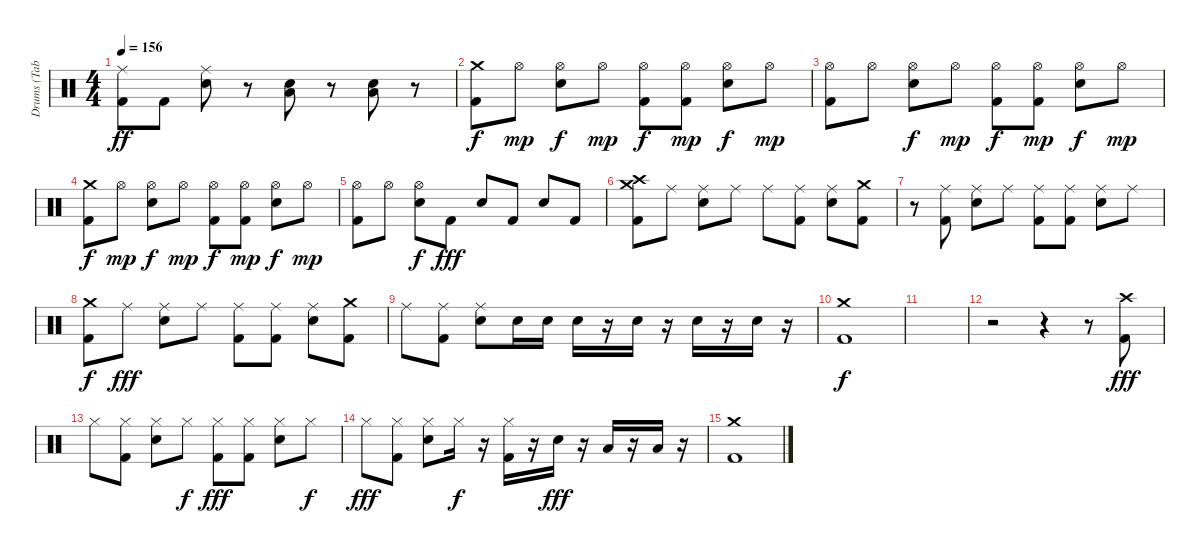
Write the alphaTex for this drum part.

\track ("Drums (Tab By Drumminger)" "Drums (Tab") {instrument percussion}
\staff {score}
\articulation defaults
\ts (4 4)
\tempo 156
\clef neutral
\ks c
("Ride (middle)" "Kick (hit) 2").8{dy ff} "Kick (hit) 2".8 ("Ride (middle)" "Snare (hit) 2").8 r.8 ("Low Floor Tom (hit)" "Snare (hit) 2").8 r.8 ("Low Floor Tom (hit)" "Snare (hit) 2").8 r.8 |
("Crash medium (hit)" "Kick (hit) 2").8{dy f} "Hi-Hat (open)".8{dy mp} ("Hi-Hat (open)" "Snare (hit) 2").8{dy f} "Hi-Hat (open)".8{dy mp} ("Hi-Hat (open)" "Kick (hit) 2").8{dy f} ("Hi-Hat (open)" "Kick (hit) 2").8{dy mp} ("Hi-Hat (open)" "Snare (hit) 2").8{dy f} "Hi-Hat (open)".8{dy mp} |
("Hi-Hat (open)" "Kick (hit) 2").8 "Hi-Hat (open)".8 ("Hi-Hat (open)" "Snare (hit) 2").8{dy f} "Hi-Hat (open)".8{dy mp} ("Hi-Hat (open)" "Kick (hit) 2").8{dy f} ("Hi-Hat (open)" "Kick (hit) 2").8{dy mp} ("Hi-Hat (open)" "Snare (hit) 2").8{dy f} "Hi-Hat (open)".8{dy mp} |
("Crash medium (hit)" "Kick (hit) 2").8{dy f} "Hi-Hat (open)".8{dy mp} ("Hi-Hat (open)" "Snare (hit) 2").8{dy f} "Hi-Hat (open)".8{dy mp} ("Hi-Hat (open)" "Kick (hit) 2").8{dy f} ("Hi-Hat (open)" "Kick (hit) 2").8{dy mp} ("Hi-Hat (open)" "Snare (hit) 2").8{dy f} "Hi-Hat (open)".8{dy mp} |
("Hi-Hat (open)" "Kick (hit) 2").8 "Hi-Hat (open)".8 ("Hi-Hat (open)" "Snare (hit) 2").8{dy f} "Kick (hit) 2".8{dy fff} "Snare (hit) 2".8 "Kick (hit) 2".8 "Snare (hit) 2".8 "Kick (hit) 2".8 |
("Crash medium (hit)" "Crash high (hit)" "Kick (hit) 2").8 "Ride (middle)".8 ("Ride (middle)" "Snare (hit) 2").8 "Ride (middle)".8 "Ride (middle)".8 ("Ride (middle)" "Kick (hit) 2").8 ("Ride (middle)" "Snare (hit) 2").8 ("Crash medium (hit)" "Kick (hit) 2").8 |
r.8 ("Ride (middle)" "Kick (hit) 2").8 ("Ride (middle)" "Snare (hit) 2").8 "Ride (middle)".8 ("Ride (middle)" "Kick (hit) 2").8 ("Ride (middle)" "Kick (hit) 2").8 ("Ride (middle)" "Snare (hit) 2").8 "Ride (middle)".8 |
("Crash medium (hit)" "Kick (hit) 2").8{dy f} "Ride (middle)".8{dy fff} ("Ride (middle)" "Snare (hit) 2").8 "Ride (middle)".8 ("Ride (middle)" "Kick (hit) 2").8 ("Ride (middle)" "Kick (hit) 2").8 ("Ride (middle)" "Snare (hit) 2").8 ("Crash medium (hit)" "Kick (hit) 2").8 |
"Ride (middle)".8 ("Ride (middle)" "Kick (hit) 2").8 ("Ride (middle)" "Snare (hit) 2").8 "Snare (hit) 2".16 "Snare (hit) 2".16 "Snare (hit) 2".16 r.16 "Snare (hit) 2".16 r.16 "Snare (hit) 2".16 r.16 "Snare (hit) 2".16 r.16 |
("Crash medium (hit)" "Kick (hit) 2").1{dy f} |
|
r.2 r.4 r.8 ("Crash high (hit)" "Kick (hit) 2").8{dy fff} |
"Hi-Hat (closed)".8 ("Hi-Hat (closed)" "Kick (hit) 2").8 ("Hi-Hat (closed)" "Snare (hit) 2").8 "Hi-Hat (closed)".8{dy f} ("Hi-Hat (closed)" "Kick (hit) 2").8{dy fff} ("Hi-Hat (closed)" "Kick (hit) 2").8 ("Hi-Hat (closed)" "Snare (hit) 2").8 "Hi-Hat (closed)".8{dy f} |
"Hi-Hat (closed)".8{dy fff} ("Hi-Hat (closed)" "Kick (hit) 2").8 ("Hi-Hat (closed)" "Snare (hit) 2").8 "Hi-Hat (closed)".16{dy f} r.16 ("Hi-Hat (closed)" "Kick (hit) 2").16 r.16 "Snare (hit) 2".16{dy fff} r.16 "Low Tom (hit)".16 r.16 "Low Tom (hit)".16 r.16 |
("Crash medium (hit)" "Kick (hit) 2").1
